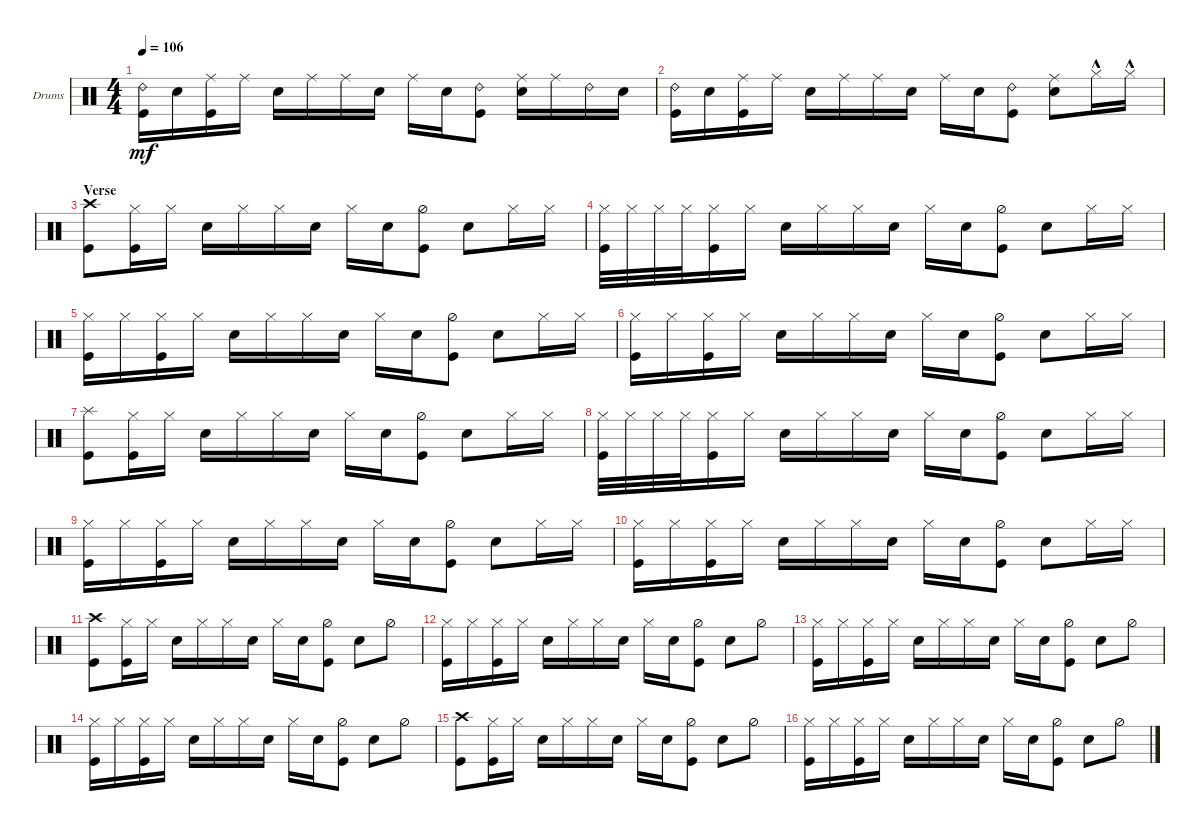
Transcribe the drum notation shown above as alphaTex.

\defaultSystemsLayout 4
\bracketExtendMode groupsimilarinstruments
\firstSystemTrackNameOrientation horizontal
\otherSystemsTrackNameOrientation horizontal
\track ("Drumkit" "Drums") {mute instrument percussion}
\staff {score}
\articulation defaults
\ts (4 4)
\tempo 106
\clef neutral
\scale
0.333333
\ks c
("Kick (hit)" "Ride (bell) 2").16{dy mf} "Snare (hit) 2".16 ("Kick (hit)" "Ride (middle)").16 "Ride (middle)".16 "Snare (hit) 2".16 "Ride (middle)".16 "Ride (middle)".16 "Snare (hit) 2".16 "Ride (middle)".16 "Snare (hit) 2".16 ("Kick (hit)" "Ride (bell) 2").8 ("Snare (hit) 2" "Ride (middle)").16 "Ride (middle)".16 "Ride (bell) 2".16 "Snare (hit) 2".16 |
\scale
0.333333 ("Kick (hit)" "Ride (bell) 2").16 "Snare (hit) 2".16 ("Kick (hit)" "Ride (middle)").16 "Ride (middle)".16 "Snare (hit) 2".16 "Ride (middle)".16 "Ride (middle)".16 "Snare (hit) 2".16 "Ride (middle)".16 "Snare (hit) 2".16 ("Kick (hit)" "Ride (bell) 2").8 ("Snare (hit) 2" "Ride (middle)").8 "Hi-Hat (closed)"{hac}.16 "Hi-Hat (closed)"{hac}.16 |
\section ("" "Verse")
\scale
0.333333 ("Kick (hit)" "Crash high (hit)").8 ("Kick (hit)" "Hi-Hat (closed)").16 "Hi-Hat (closed)".16 "Snare (hit) 2".16 "Hi-Hat (closed)".16 "Hi-Hat (closed)".16 "Snare (hit) 2".16 "Hi-Hat (closed)".16 "Snare (hit) 2".16 ("Kick (hit)" "Hi-Hat (half)").8 "Snare (hit) 2".8 "Hi-Hat (closed)".16 "Hi-Hat (closed)".16 |
\scale
0.333333 ("Kick (hit)" "Hi-Hat (closed)").32 "Hi-Hat (closed)".32 "Hi-Hat (closed)".32 "Hi-Hat (closed)".32 ("Kick (hit)" "Hi-Hat (closed)").16 "Hi-Hat (closed)".16 "Snare (hit) 2".16 "Hi-Hat (closed)".16 "Hi-Hat (closed)".16 "Snare (hit) 2".16 "Hi-Hat (closed)".16 "Snare (hit) 2".16 ("Kick (hit)" "Hi-Hat (half)").8 "Snare (hit) 2".8 "Hi-Hat (closed)".16 "Hi-Hat (closed)".16 |
\scale
0.333333 ("Kick (hit)" "Hi-Hat (closed)").16 "Hi-Hat (closed)".16 ("Kick (hit)" "Hi-Hat (closed)").16 "Hi-Hat (closed)".16 "Snare (hit) 2".16 "Hi-Hat (closed)".16 "Hi-Hat (closed)".16 "Snare (hit) 2".16 "Hi-Hat (closed)".16 "Snare (hit) 2".16 ("Kick (hit)" "Hi-Hat (half)").8 "Snare (hit) 2".8 "Hi-Hat (closed)".16 "Hi-Hat (closed)".16 |
\scale
0.333333 ("Kick (hit)" "Hi-Hat (closed)").16 "Hi-Hat (closed)".16 ("Kick (hit)" "Hi-Hat (closed)").16 "Hi-Hat (closed)".16 "Snare (hit) 2".16 "Hi-Hat (closed)".16 "Hi-Hat (closed)".16 "Snare (hit) 2".16 "Hi-Hat (closed)".16 "Snare (hit) 2".16 ("Kick (hit)" "Hi-Hat (half)").8 "Snare (hit) 2".8 "Hi-Hat (closed)".16 "Hi-Hat (closed)".16 |
\scale
0.333333 ("Kick (hit)" "Splash (hit)").8 ("Kick (hit)" "Hi-Hat (closed)").16 "Hi-Hat (closed)".16 "Snare (hit) 2".16 "Hi-Hat (closed)".16 "Hi-Hat (closed)".16 "Snare (hit) 2".16 "Hi-Hat (closed)".16 "Snare (hit) 2".16 ("Kick (hit)" "Hi-Hat (half)").8 "Snare (hit) 2".8 "Hi-Hat (closed)".16 "Hi-Hat (closed)".16 |
\scale
0.333333 ("Kick (hit)" "Hi-Hat (closed)").32 "Hi-Hat (closed)".32 "Hi-Hat (closed)".32 "Hi-Hat (closed)".32 ("Kick (hit)" "Hi-Hat (closed)").16 "Hi-Hat (closed)".16 "Snare (hit) 2".16 "Hi-Hat (closed)".16 "Hi-Hat (closed)".16 "Snare (hit) 2".16 "Hi-Hat (closed)".16 "Snare (hit) 2".16 ("Kick (hit)" "Hi-Hat (half)").8 "Snare (hit) 2".8 "Hi-Hat (closed)".16 "Hi-Hat (closed)".16 |
\scale
0.333333 ("Kick (hit)" "Hi-Hat (closed)").16 "Hi-Hat (closed)".16 ("Kick (hit)" "Hi-Hat (closed)").16 "Hi-Hat (closed)".16 "Snare (hit) 2".16 "Hi-Hat (closed)".16 "Hi-Hat (closed)".16 "Snare (hit) 2".16 "Hi-Hat (closed)".16 "Snare (hit) 2".16 ("Kick (hit)" "Hi-Hat (half)").8 "Snare (hit) 2".8 "Hi-Hat (closed)".16 "Hi-Hat (closed)".16 |
\scale
0.333333 ("Kick (hit)" "Hi-Hat (closed)").16 "Hi-Hat (closed)".16 ("Kick (hit)" "Hi-Hat (closed)").16 "Hi-Hat (closed)".16 "Snare (hit) 2".16 "Hi-Hat (closed)".16 "Hi-Hat (closed)".16 "Snare (hit) 2".16 "Hi-Hat (closed)".16 "Snare (hit) 2".16 ("Kick (hit)" "Hi-Hat (half)").8 "Snare (hit) 2".8 "Hi-Hat (closed)".16 "Hi-Hat (closed)".16 |
\scale
0.333333 ("Kick (hit)" "Crash high (hit)").8 ("Kick (hit)" "Hi-Hat (closed)").16 "Hi-Hat (closed)".16 "Snare (hit) 2".16 "Hi-Hat (closed)".16 "Hi-Hat (closed)".16 "Snare (hit) 2".16 "Hi-Hat (closed)".16 "Snare (hit) 2".16 ("Kick (hit)" "Hi-Hat (half)").8 "Snare (hit) 2".8 "Hi-Hat (half)".8 |
\scale
0.333333 ("Kick (hit)" "Hi-Hat (closed)").16 "Hi-Hat (closed)".16 ("Kick (hit)" "Hi-Hat (closed)").16 "Hi-Hat (closed)".16 "Snare (hit) 2".16 "Hi-Hat (closed)".16 "Hi-Hat (closed)".16 "Snare (hit) 2".16 "Hi-Hat (closed)".16 "Snare (hit) 2".16 ("Kick (hit)" "Hi-Hat (half)").8 "Snare (hit) 2".8 "Hi-Hat (half)".8 |
\scale
0.333333 ("Kick (hit)" "Hi-Hat (closed)").16 "Hi-Hat (closed)".16 ("Kick (hit)" "Hi-Hat (closed)").16 "Hi-Hat (closed)".16 "Snare (hit) 2".16 "Hi-Hat (closed)".16 "Hi-Hat (closed)".16 "Snare (hit) 2".16 "Hi-Hat (closed)".16 "Snare (hit) 2".16 ("Kick (hit)" "Hi-Hat (half)").8 "Snare (hit) 2".8 "Hi-Hat (half)".8 |
\scale
0.333333 ("Kick (hit)" "Hi-Hat (closed)").16 "Hi-Hat (closed)".16 ("Kick (hit)" "Hi-Hat (closed)").16 "Hi-Hat (closed)".16 "Snare (hit) 2".16 "Hi-Hat (closed)".16 "Hi-Hat (closed)".16 "Snare (hit) 2".16 "Hi-Hat (closed)".16 "Snare (hit) 2".16 ("Kick (hit)" "Hi-Hat (half)").8 "Snare (hit) 2".8 "Hi-Hat (half)".8 |
\scale
0.333333 ("Kick (hit)" "Crash high (hit)").8 ("Kick (hit)" "Hi-Hat (closed)").16 "Hi-Hat (closed)".16 "Snare (hit) 2".16 "Hi-Hat (closed)".16 "Hi-Hat (closed)".16 "Snare (hit) 2".16 "Hi-Hat (closed)".16 "Snare (hit) 2".16 ("Kick (hit)" "Hi-Hat (half)").8 "Snare (hit) 2".8 "Hi-Hat (half)".8 |
\scale
0.333333 ("Kick (hit)" "Hi-Hat (closed)").16 "Hi-Hat (closed)".16 ("Kick (hit)" "Hi-Hat (closed)").16 "Hi-Hat (closed)".16 "Snare (hit) 2".16 "Hi-Hat (closed)".16 "Hi-Hat (closed)".16 "Snare (hit) 2".16 "Hi-Hat (closed)".16 "Snare (hit) 2".16 ("Kick (hit)" "Hi-Hat (half)").8 "Snare (hit) 2".8 "Hi-Hat (half)".8
